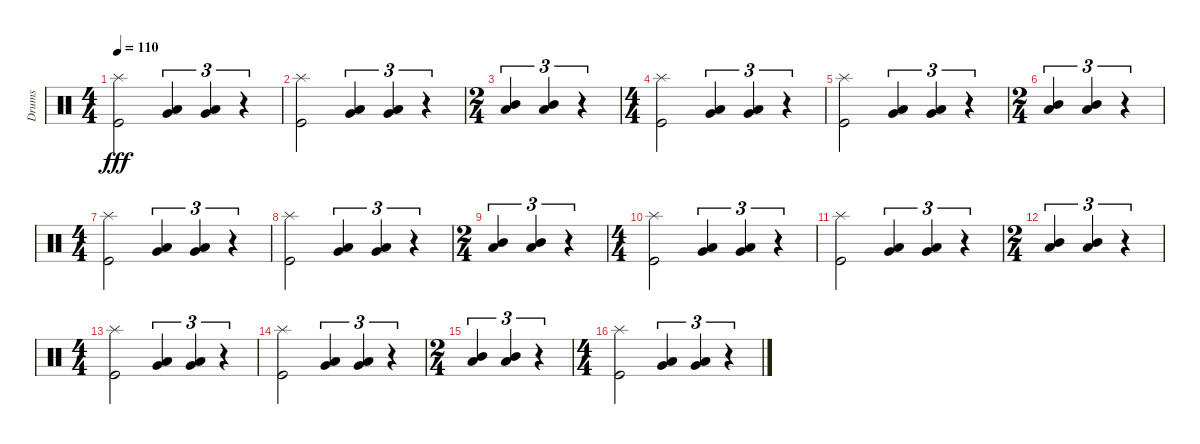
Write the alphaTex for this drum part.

\track ("Drums" "Drums") {instrument percussion}
\staff {score}
\articulation defaults
\ts (4 4)
\tempo 110
\clef neutral
\ks c
("Splash (hit)" "Kick (hit)").2{dy fff} ("Low Tom (hit)" "Very Low Tom (hit)").4{tu (3 2)} ("Low Tom (hit)" "Very Low Tom (hit)").4{tu (3 2)} r.4{tu (3 2)} |
("Splash (hit)" "Kick (hit)").2 ("Low Tom (hit)" "Very Low Tom (hit)").4{tu (3 2)} ("Low Tom (hit)" "Very Low Tom (hit)").4{tu (3 2)} r.4{tu (3 2)} |
\ts (2 4)
("Mid Tom (hit)" "Low Tom (hit)").4{tu (3 2)} ("Mid Tom (hit)" "Low Tom (hit)").4{tu (3 2)} r.4{tu (3 2)} |
\ts (4 4)
("Splash (hit)" "Kick (hit)").2 ("Low Tom (hit)" "Very Low Tom (hit)").4{tu (3 2)} ("Low Tom (hit)" "Very Low Tom (hit)").4{tu (3 2)} r.4{tu (3 2)} |
("Splash (hit)" "Kick (hit)").2 ("Low Tom (hit)" "Very Low Tom (hit)").4{tu (3 2)} ("Low Tom (hit)" "Very Low Tom (hit)").4{tu (3 2)} r.4{tu (3 2)} |
\ts (2 4)
("Mid Tom (hit)" "Low Tom (hit)").4{tu (3 2)} ("Mid Tom (hit)" "Low Tom (hit)").4{tu (3 2)} r.4{tu (3 2)} |
\ts (4 4)
("Splash (hit)" "Kick (hit)").2 ("Low Tom (hit)" "Very Low Tom (hit)").4{tu (3 2)} ("Low Tom (hit)" "Very Low Tom (hit)").4{tu (3 2)} r.4{tu (3 2)} |
("Splash (hit)" "Kick (hit)").2 ("Low Tom (hit)" "Very Low Tom (hit)").4{tu (3 2)} ("Low Tom (hit)" "Very Low Tom (hit)").4{tu (3 2)} r.4{tu (3 2)} |
\ts (2 4)
("Mid Tom (hit)" "Low Tom (hit)").4{tu (3 2)} ("Mid Tom (hit)" "Low Tom (hit)").4{tu (3 2)} r.4{tu (3 2)} |
\ts (4 4)
("Splash (hit)" "Kick (hit)").2 ("Low Tom (hit)" "Very Low Tom (hit)").4{tu (3 2)} ("Low Tom (hit)" "Very Low Tom (hit)").4{tu (3 2)} r.4{tu (3 2)} |
("Splash (hit)" "Kick (hit)").2 ("Low Tom (hit)" "Very Low Tom (hit)").4{tu (3 2)} ("Low Tom (hit)" "Very Low Tom (hit)").4{tu (3 2)} r.4{tu (3 2)} |
\ts (2 4)
("Mid Tom (hit)" "Low Tom (hit)").4{tu (3 2)} ("Mid Tom (hit)" "Low Tom (hit)").4{tu (3 2)} r.4{tu (3 2)} |
\ts (4 4)
("Splash (hit)" "Kick (hit)").2 ("Low Tom (hit)" "Very Low Tom (hit)").4{tu (3 2)} ("Low Tom (hit)" "Very Low Tom (hit)").4{tu (3 2)} r.4{tu (3 2)} |
("Splash (hit)" "Kick (hit)").2 ("Low Tom (hit)" "Very Low Tom (hit)").4{tu (3 2)} ("Low Tom (hit)" "Very Low Tom (hit)").4{tu (3 2)} r.4{tu (3 2)} |
\ts (2 4)
("Mid Tom (hit)" "Low Tom (hit)").4{tu (3 2)} ("Mid Tom (hit)" "Low Tom (hit)").4{tu (3 2)} r.4{tu (3 2)} |
\ts (4 4)
("Splash (hit)" "Kick (hit)").2 ("Low Tom (hit)" "Very Low Tom (hit)").4{tu (3 2)} ("Low Tom (hit)" "Very Low Tom (hit)").4{tu (3 2)} r.4{tu (3 2)}
